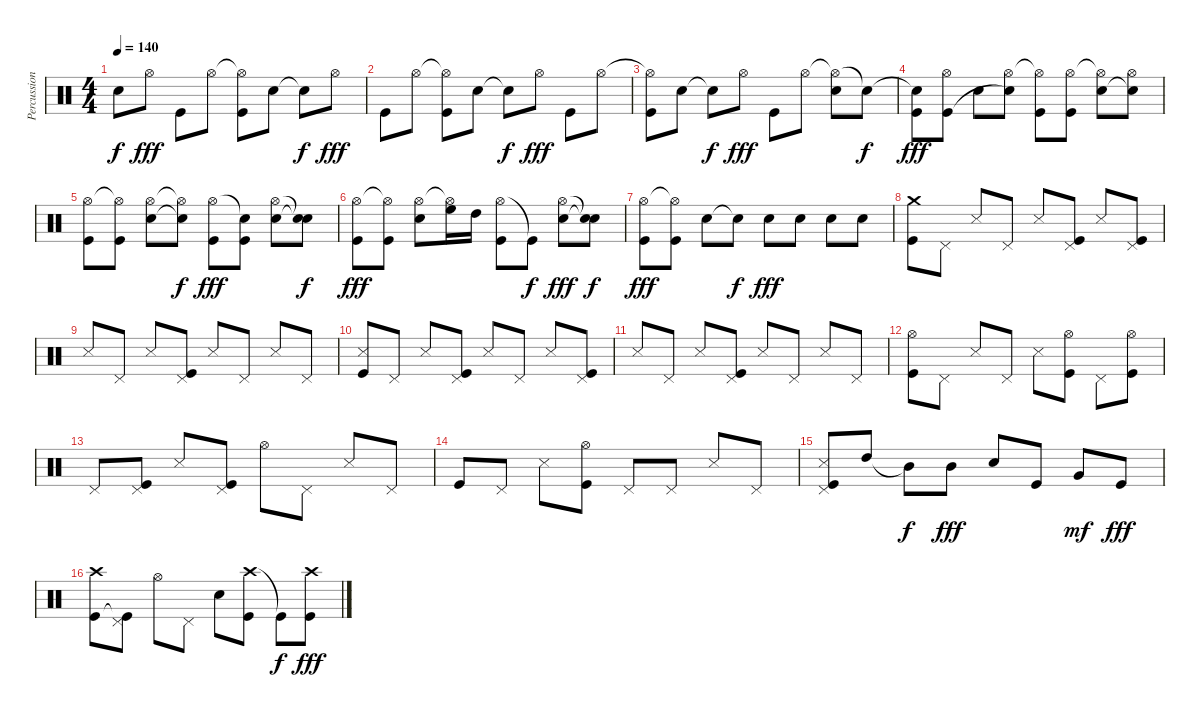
\track ("Percussions" "Percussion") {instrument percussion}
\staff {score}
\articulation defaults
\ts (4 4)
\tempo 140
\clef neutral
\ks c "Electric Snare (hit)"{t}.8{dy f} "Hi-Hat (open)".8{dy fff} "Kick (hit)".8 "Hi-Hat (open)".8
("Hi-Hat (open)"{t} "Kick (hit)").8 "Electric Snare (hit)".8 "Snare (hit)"{t}.8{dy f} "Hi-Hat (open)".8{dy fff} |
"Kick (hit)".8 "Hi-Hat (open)".8 ("Hi-Hat (open)"{t} "Kick (hit)").8 "Electric Snare (hit)".8 "Snare (hit)"{t}.8{dy f} "Hi-Hat (open)".8{dy fff} "Kick (hit)".8 "Hi-Hat (open)".8 |
("Hi-Hat (open)"{t} "Kick (hit)").8 "Electric Snare (hit)".8 "Electric Snare (hit)"{t}.8{dy f} "Hi-Hat (open)".8{dy fff} "Kick (hit)".8 "Hi-Hat (open)".8 ("Hi-Hat (open)"{t} "Electric Snare (hit)").8 "Electric Snare (hit)"{t}.8{dy f} |
("Electric Snare (hit)"{t} "Kick (hit)").8{dy fff} ("Hi-Hat (open)" "Kick (hit)").8 "Electric Snare (hit)".8 ("Hi-Hat (open)" "Snare (hit)"{t}).8 ("Hi-Hat (open)"{t} "Kick (hit)").8 ("Hi-Hat (open)" "Kick (hit)").8 ("Hi-Hat (open)"{t} "Electric Snare (hit)").8 ("Hi-Hat (open)" "Snare (hit)"{t}).8 |
("Hi-Hat (open)" "Kick (hit)").8 ("Hi-Hat (open)"{t} "Kick (hit)").8 ("Hi-Hat (open)" "Electric Snare (hit)").8 ("Hi-Hat (open)"{t} "Electric Snare (hit)"{t}).8{dy f} ("Hi-Hat (open)" "Kick (hit)").8{dy fff} ("Snare (hit)"{t} "Kick (hit)").8 ("Hi-Hat (open)" "Electric Snare (hit)").8 ("Snare (hit)"{t} "Snare (hit)"{t}).8{dy f} |
("Hi-Hat (open)" "Kick (hit)").8{dy fff} ("Hi-Hat (open)"{t} "Kick (hit)").8 ("Hi-Hat (open)" "Electric Snare (hit)").8 ("Hi-Hat (open)"{t} "High Floor Tom (hit)").16 "High Tom (hit)".16 ("Hi-Hat (open)" "Kick (hit)").8 "Kick (hit)"{t}.8{dy f} ("Hi-Hat (open)" "Electric Snare (hit)").8{dy fff} ("Snare (hit)"{t} "Snare (hit)"{t}).8{dy f} |
("Hi-Hat (open)" "Kick (hit)").8{dy fff} ("Hi-Hat (open)"{t} "Kick (hit)").8 "Electric Snare (hit)".8 "Electric Snare (hit)"{t}.8{dy f} "Electric Snare (hit)".8{dy fff} "Electric Snare (hit)".8 "Electric Snare (hit)".8 "Electric Snare (hit)".8 |
("Crash medium (hit)" "Kick (hit)").8 "Pedal Hi-Hat (hit)".8 "Snare (side stick) 3".8 "Pedal Hi-Hat (hit)".8 "Snare (side stick) 3".8 ("Pedal Hi-Hat (hit)" "Kick (hit)").8 "Snare (side stick) 3".8 ("Pedal Hi-Hat (hit)" "Kick (hit)").8 |
"Snare (side stick) 3".8 "Pedal Hi-Hat (hit)".8 "Snare (side stick) 3".8 ("Pedal Hi-Hat (hit)" "Kick (hit)").8 "Snare (side stick) 3".8 "Pedal Hi-Hat (hit)".8 "Snare (side stick) 3".8 "Pedal Hi-Hat (hit)".8 |
("Snare (side stick) 3" "Kick (hit)").8 "Pedal Hi-Hat (hit)".8 "Snare (side stick) 3".8 ("Pedal Hi-Hat (hit)" "Kick (hit)").8 "Snare (side stick) 3".8 "Pedal Hi-Hat (hit)".8 "Snare (side stick) 3".8 ("Pedal Hi-Hat (hit)" "Kick (hit)").8 |
"Snare (side stick) 3".8 "Pedal Hi-Hat (hit)".8 "Snare (side stick) 3".8 ("Pedal Hi-Hat (hit)" "Kick (hit)").8 "Snare (side stick) 3".8 "Pedal Hi-Hat (hit)".8 "Snare (side stick) 3".8 "Pedal Hi-Hat (hit)".8 |
("Hi-Hat (open)" "Kick (hit)").8 "Pedal Hi-Hat (hit)".8 "Snare (side stick) 3".8 "Pedal Hi-Hat (hit)".8 "Snare (side stick) 3".8 ("Hi-Hat (open)" "Kick (hit)").8 "Pedal Hi-Hat (hit)".8 ("Hi-Hat (open)" "Kick (hit)").8 |
"Pedal Hi-Hat (hit)".8 ("Pedal Hi-Hat (hit)" "Kick (hit)").8 "Snare (side stick) 3".8 ("Pedal Hi-Hat (hit)" "Kick (hit)").8 "Hi-Hat (open)".8 "Pedal Hi-Hat (hit)".8 "Snare (side stick) 3".8 "Pedal Hi-Hat (hit)".8 |
"Kick (hit)".8 "Pedal Hi-Hat (hit)".8 "Snare (side stick) 3".8 ("Hi-Hat (open)" "Kick (hit)").8 "Pedal Hi-Hat (hit)".8 "Pedal Hi-Hat (hit)".8 "Snare (side stick) 3".8 "Pedal Hi-Hat (hit)".8 |
("Pedal Hi-Hat (hit)" "Snare (side stick) 3" "Kick (hit)").8 "High Tom (hit)".8{volume 11} "Mid Tom (hit)"{t}.8{dy f} "Mid Tom (hit)".8{dy fff} "Electric Snare (hit)".8{volume 16} "Kick (hit)".8 "Very Low Tom (hit)".8{dy mf volume 12} "Kick (hit)".8{dy fff volume 16} |
("Crash high (hit)" "Kick (hit)").8 ("Pedal Hi-Hat (hit)" "Kick (hit)"{t}).8 "Hi-Hat (open)".8 "Pedal Hi-Hat (hit)".8 "Electric Snare (hit)".8 ("Crash high (hit)" "Kick (hit)").8 "Kick (hit)"{t}.8{dy f} ("Crash high (hit)" "Kick (hit)").8{dy fff}
